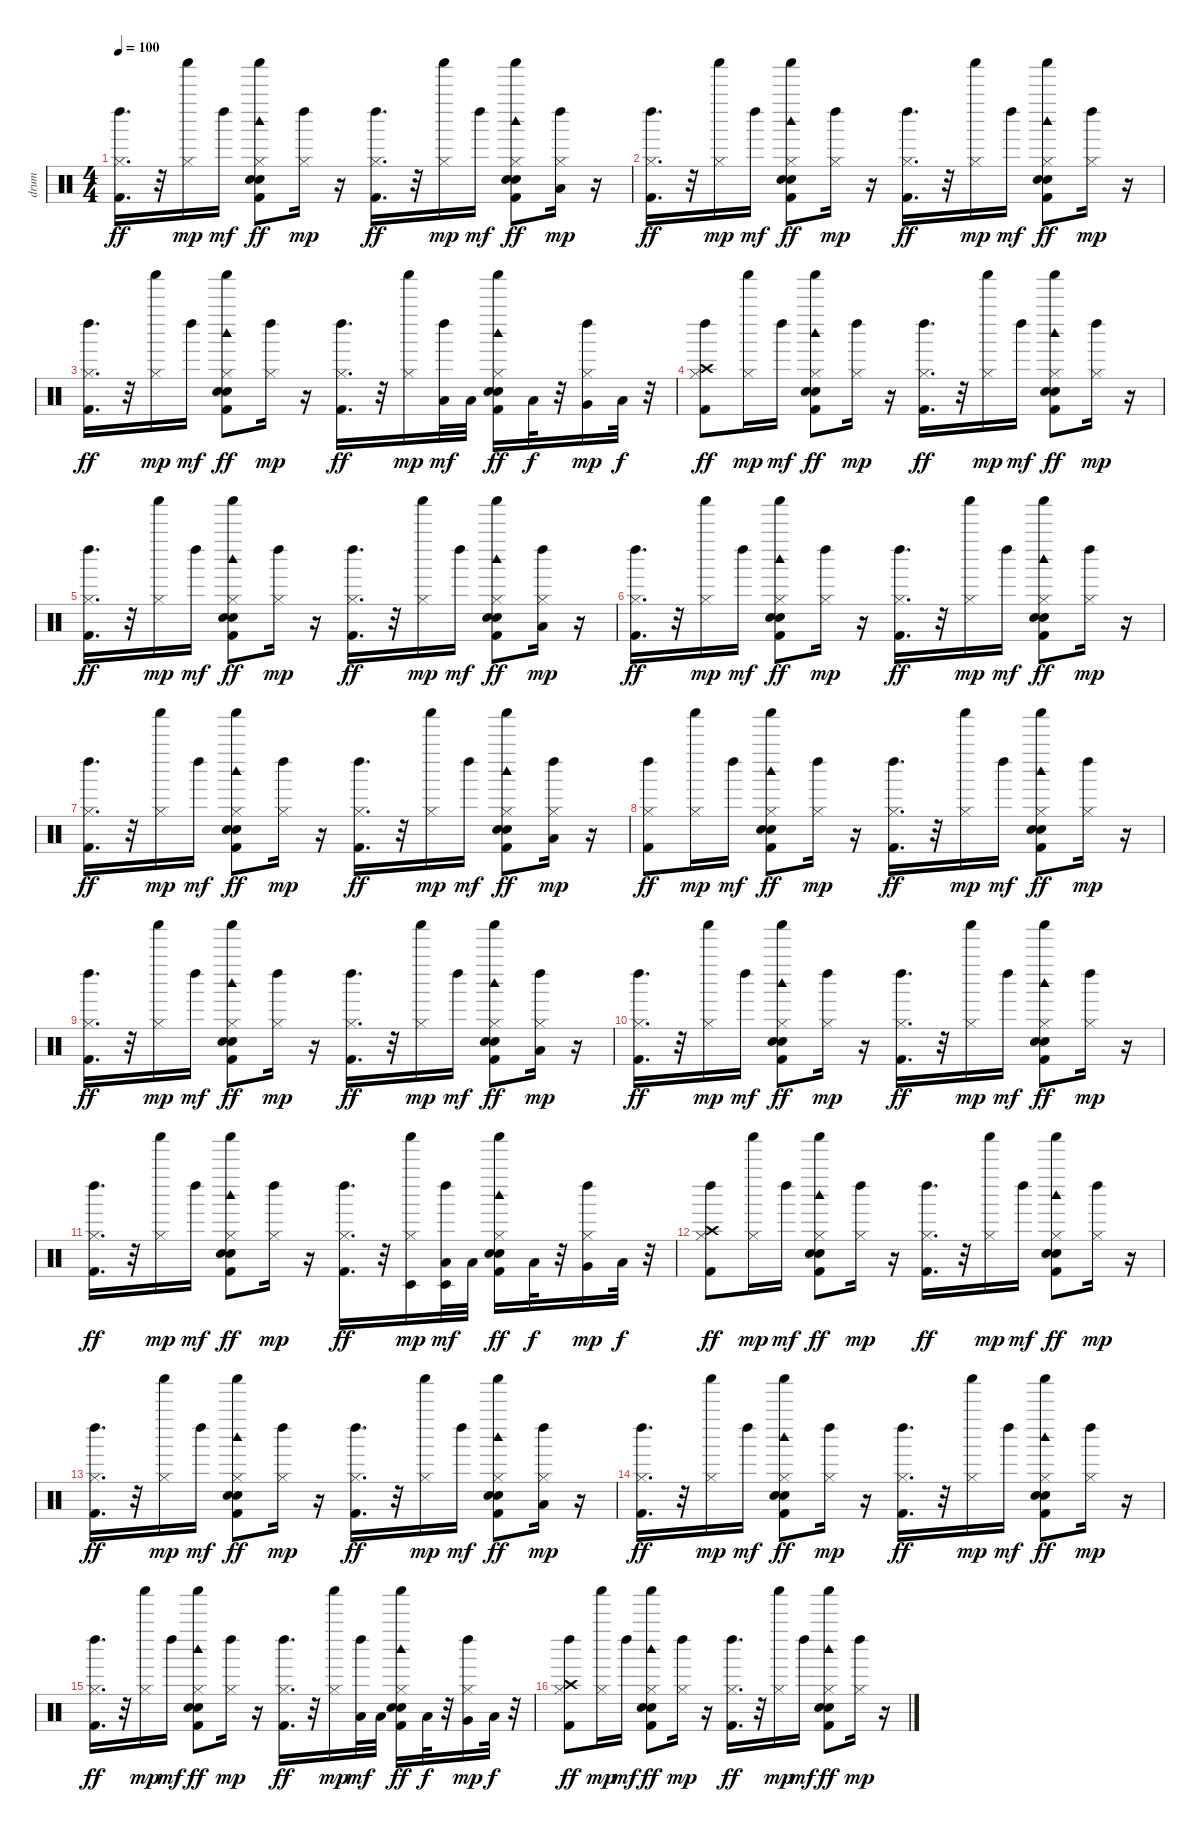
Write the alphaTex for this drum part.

\track ("drum" "drum") {instrument percussion}
\staff {score}
\articulation defaults
\ts (4 4)
\tempo 100
\clef neutral
\ks c
("Left Maraca (hit)" "Hi-Hat (closed)" "Kick (hit) 2").16{d dy ff} r.32 ("Shaker (hit)" "Hi-Hat (closed)").16{dy mp} "Left Maraca (hit)".16{dy mf} ("Shaker (hit)" "Woodblock high (hit)" "Hi-Hat (closed)" "Hand Clap (hit)" "Snare (hit) 2" "Kick (hit) 2").8{dy ff} ("Left Maraca (hit)" "Hi-Hat (closed)").16{dy mp} r.16 ("Left Maraca (hit)" "Hi-Hat (closed)" "Kick (hit) 2").16{d dy ff} r.32 ("Shaker (hit)" "Hi-Hat (closed)").16{dy mp} "Left Maraca (hit)".16{dy mf} ("Shaker (hit)" "Woodblock high (hit)" "Hi-Hat (closed)" "Hand Clap (hit)" "Snare (hit) 2" "Kick (hit) 2").8{dy ff} ("Left Maraca (hit)" "Hi-Hat (closed)" "Low Floor Tom (hit)").16{dy mp} r.16 |
("Left Maraca (hit)" "Hi-Hat (closed)" "Kick (hit) 2").16{d dy ff} r.32 ("Shaker (hit)" "Hi-Hat (closed)").16{dy mp} "Left Maraca (hit)".16{dy mf} ("Shaker (hit)" "Woodblock high (hit)" "Hi-Hat (closed)" "Hand Clap (hit)" "Snare (hit) 2" "Kick (hit) 2").8{dy ff} ("Left Maraca (hit)" "Hi-Hat (closed)").16{dy mp} r.16 ("Left Maraca (hit)" "Hi-Hat (closed)" "Kick (hit) 2").16{d dy ff} r.32 ("Shaker (hit)" "Hi-Hat (closed)").16{dy mp} "Left Maraca (hit)".16{dy mf} ("Shaker (hit)" "Woodblock high (hit)" "Hi-Hat (closed)" "Hand Clap (hit)" "Snare (hit) 2" "Kick (hit) 2").8{dy ff} ("Left Maraca (hit)" "Hi-Hat (closed)").16{dy mp} r.16 |
("Left Maraca (hit)" "Hi-Hat (closed)" "Kick (hit) 2").16{d dy ff} r.32 ("Shaker (hit)" "Hi-Hat (closed)").16{dy mp} "Left Maraca (hit)".16{dy mf} ("Shaker (hit)" "Woodblock high (hit)" "Hi-Hat (closed)" "Hand Clap (hit)" "Snare (hit) 2" "Kick (hit) 2").8{dy ff} ("Left Maraca (hit)" "Hi-Hat (closed)").16{dy mp} r.16 ("Left Maraca (hit)" "Hi-Hat (closed)" "Kick (hit) 2").16{d dy ff} r.32 ("Shaker (hit)" "Hi-Hat (closed)").16{dy mp} ("Left Maraca (hit)" "Low Tom (hit)").32{dy mf} "Low Tom (hit)".32 ("Shaker (hit)" "Woodblock high (hit)" "Hi-Hat (closed)" "Hand Clap (hit)" "Snare (hit) 2" "Kick (hit) 2").16{dy ff} "Low Tom (hit)".32{dy f} r.32 ("Left Maraca (hit)" "Hi-Hat (closed)" "Very Low Tom (hit)").16{dy mp} "Low Floor Tom (hit)".32{dy f} r.32 |
("Crash high (hit)" "Left Maraca (hit)" "Hi-Hat (closed)" "Kick (hit) 2").8{dy ff} ("Shaker (hit)" "Hi-Hat (closed)").16{dy mp} "Left Maraca (hit)".16{dy mf} ("Shaker (hit)" "Woodblock high (hit)" "Hi-Hat (closed)" "Hand Clap (hit)" "Snare (hit) 2" "Kick (hit) 2").8{dy ff} ("Left Maraca (hit)" "Hi-Hat (closed)").16{dy mp} r.16 ("Left Maraca (hit)" "Hi-Hat (closed)" "Kick (hit) 2").16{d dy ff} r.32 ("Shaker (hit)" "Hi-Hat (closed)").16{dy mp} "Left Maraca (hit)".16{dy mf} ("Shaker (hit)" "Woodblock high (hit)" "Hi-Hat (closed)" "Hand Clap (hit)" "Snare (hit) 2" "Kick (hit) 2").8{dy ff} ("Left Maraca (hit)" "Hi-Hat (closed)").16{dy mp} r.16 |
("Left Maraca (hit)" "Hi-Hat (closed)" "Kick (hit) 2").16{d dy ff} r.32 ("Shaker (hit)" "Hi-Hat (closed)").16{dy mp} "Left Maraca (hit)".16{dy mf} ("Shaker (hit)" "Woodblock high (hit)" "Hi-Hat (closed)" "Hand Clap (hit)" "Snare (hit) 2" "Kick (hit) 2").8{dy ff} ("Left Maraca (hit)" "Hi-Hat (closed)").16{dy mp} r.16 ("Left Maraca (hit)" "Hi-Hat (closed)" "Kick (hit) 2").16{d dy ff} r.32 ("Shaker (hit)" "Hi-Hat (closed)").16{dy mp} "Left Maraca (hit)".16{dy mf} ("Shaker (hit)" "Woodblock high (hit)" "Hi-Hat (closed)" "Hand Clap (hit)" "Snare (hit) 2" "Kick (hit) 2").8{dy ff} ("Left Maraca (hit)" "Hi-Hat (closed)" "Low Floor Tom (hit)").16{dy mp} r.16 |
("Left Maraca (hit)" "Hi-Hat (closed)" "Kick (hit) 2").16{d dy ff} r.32 ("Shaker (hit)" "Hi-Hat (closed)").16{dy mp} "Left Maraca (hit)".16{dy mf} ("Shaker (hit)" "Woodblock high (hit)" "Hi-Hat (closed)" "Hand Clap (hit)" "Snare (hit) 2" "Kick (hit) 2").8{dy ff} ("Left Maraca (hit)" "Hi-Hat (closed)").16{dy mp} r.16 ("Left Maraca (hit)" "Hi-Hat (closed)" "Kick (hit) 2").16{d dy ff} r.32 ("Shaker (hit)" "Hi-Hat (closed)").16{dy mp} "Left Maraca (hit)".16{dy mf} ("Shaker (hit)" "Woodblock high (hit)" "Hi-Hat (closed)" "Hand Clap (hit)" "Snare (hit) 2" "Kick (hit) 2").8{dy ff} ("Left Maraca (hit)" "Hi-Hat (closed)").16{dy mp} r.16 |
("Left Maraca (hit)" "Hi-Hat (closed)" "Kick (hit) 2").16{d dy ff} r.32 ("Shaker (hit)" "Hi-Hat (closed)").16{dy mp} "Left Maraca (hit)".16{dy mf} ("Shaker (hit)" "Woodblock high (hit)" "Hi-Hat (closed)" "Hand Clap (hit)" "Snare (hit) 2" "Kick (hit) 2").8{dy ff} ("Left Maraca (hit)" "Hi-Hat (closed)").16{dy mp} r.16 ("Left Maraca (hit)" "Hi-Hat (closed)" "Kick (hit) 2").16{d dy ff} r.32 ("Shaker (hit)" "Hi-Hat (closed)").16{dy mp} "Left Maraca (hit)".16{dy mf} ("Shaker (hit)" "Woodblock high (hit)" "Hi-Hat (closed)" "Hand Clap (hit)" "Snare (hit) 2" "Kick (hit) 2").8{dy ff} ("Left Maraca (hit)" "Hi-Hat (closed)" "Low Floor Tom (hit)").16{dy mp} r.16 |
("Left Maraca (hit)" "Hi-Hat (closed)" "Kick (hit) 2").8{dy ff} ("Shaker (hit)" "Hi-Hat (closed)").16{dy mp} "Left Maraca (hit)".16{dy mf} ("Shaker (hit)" "Woodblock high (hit)" "Hi-Hat (closed)" "Hand Clap (hit)" "Snare (hit) 2" "Kick (hit) 2").8{dy ff} ("Left Maraca (hit)" "Hi-Hat (closed)").16{dy mp} r.16 ("Left Maraca (hit)" "Hi-Hat (closed)" "Kick (hit) 2").16{d dy ff} r.32 ("Shaker (hit)" "Hi-Hat (closed)").16{dy mp} "Left Maraca (hit)".16{dy mf} ("Shaker (hit)" "Woodblock high (hit)" "Hi-Hat (closed)" "Hand Clap (hit)" "Snare (hit) 2" "Kick (hit) 2").8{dy ff} ("Left Maraca (hit)" "Hi-Hat (closed)").16{dy mp} r.16 |
("Left Maraca (hit)" "Hi-Hat (closed)" "Kick (hit) 2").16{d dy ff} r.32 ("Shaker (hit)" "Hi-Hat (closed)").16{dy mp} "Left Maraca (hit)".16{dy mf} ("Shaker (hit)" "Woodblock high (hit)" "Hi-Hat (closed)" "Hand Clap (hit)" "Snare (hit) 2" "Kick (hit) 2").8{dy ff} ("Left Maraca (hit)" "Hi-Hat (closed)").16{dy mp} r.16 ("Left Maraca (hit)" "Hi-Hat (closed)" "Kick (hit) 2").16{d dy ff} r.32 ("Shaker (hit)" "Hi-Hat (closed)").16{dy mp} "Left Maraca (hit)".16{dy mf} ("Shaker (hit)" "Woodblock high (hit)" "Hi-Hat (closed)" "Hand Clap (hit)" "Snare (hit) 2" "Kick (hit) 2").8{dy ff} ("Left Maraca (hit)" "Hi-Hat (closed)" "Low Floor Tom (hit)").16{dy mp} r.16 |
("Left Maraca (hit)" "Hi-Hat (closed)" "Kick (hit) 2").16{d dy ff} r.32 ("Shaker (hit)" "Hi-Hat (closed)").16{dy mp} "Left Maraca (hit)".16{dy mf} ("Shaker (hit)" "Woodblock high (hit)" "Hi-Hat (closed)" "Hand Clap (hit)" "Snare (hit) 2" "Kick (hit) 2").8{dy ff} ("Left Maraca (hit)" "Hi-Hat (closed)").16{dy mp} r.16 ("Left Maraca (hit)" "Hi-Hat (closed)" "Kick (hit) 2").16{d dy ff} r.32 ("Shaker (hit)" "Hi-Hat (closed)").16{dy mp} "Left Maraca (hit)".16{dy mf} ("Shaker (hit)" "Woodblock high (hit)" "Hi-Hat (closed)" "Hand Clap (hit)" "Snare (hit) 2" "Kick (hit) 2").8{dy ff} ("Left Maraca (hit)" "Hi-Hat (closed)").16{dy mp} r.16 |
("Left Maraca (hit)" "Hi-Hat (closed)" "Kick (hit) 2").16{d dy ff} r.32 ("Shaker (hit)" "Hi-Hat (closed)").16{dy mp} "Left Maraca (hit)".16{dy mf} ("Shaker (hit)" "Woodblock high (hit)" "Hi-Hat (closed)" "Hand Clap (hit)" "Snare (hit) 2" "Kick (hit) 2").8{dy ff} ("Left Maraca (hit)" "Hi-Hat (closed)").16{dy mp} r.16 ("Left Maraca (hit)" "Hi-Hat (closed)" "Kick (hit) 2").16{d dy ff} r.32 ("Shaker (hit)" "Hi-Hat (closed)" "Timbale low (hit)").16{dy mp} ("Left Maraca (hit)" "Low Tom (hit)" "Timbale low (hit)").32{dy mf} "Low Tom (hit)".32 ("Shaker (hit)" "Woodblock high (hit)" "Hi-Hat (closed)" "Hand Clap (hit)" "Snare (hit) 2" "Kick (hit) 2").16{dy ff} "Low Tom (hit)".32{dy f} r.32 ("Left Maraca (hit)" "Hi-Hat (closed)" "Very Low Tom (hit)").16{dy mp} "Low Floor Tom (hit)".32{dy f} r.32 |
("Crash high (hit)" "Left Maraca (hit)" "Hi-Hat (closed)" "Kick (hit) 2").8{dy ff} ("Shaker (hit)" "Hi-Hat (closed)").16{dy mp} "Left Maraca (hit)".16{dy mf} ("Shaker (hit)" "Woodblock high (hit)" "Hi-Hat (closed)" "Hand Clap (hit)" "Snare (hit) 2" "Kick (hit) 2").8{dy ff} ("Left Maraca (hit)" "Hi-Hat (closed)").16{dy mp} r.16 ("Left Maraca (hit)" "Hi-Hat (closed)" "Kick (hit) 2").16{d dy ff} r.32 ("Shaker (hit)" "Hi-Hat (closed)").16{dy mp} "Left Maraca (hit)".16{dy mf} ("Shaker (hit)" "Woodblock high (hit)" "Hi-Hat (closed)" "Hand Clap (hit)" "Snare (hit) 2" "Kick (hit) 2").8{dy ff} ("Left Maraca (hit)" "Hi-Hat (closed)").16{dy mp} r.16 |
("Left Maraca (hit)" "Hi-Hat (closed)" "Kick (hit) 2").16{d dy ff} r.32 ("Shaker (hit)" "Hi-Hat (closed)").16{dy mp} "Left Maraca (hit)".16{dy mf} ("Shaker (hit)" "Woodblock high (hit)" "Hi-Hat (closed)" "Hand Clap (hit)" "Snare (hit) 2" "Kick (hit) 2").8{dy ff} ("Left Maraca (hit)" "Hi-Hat (closed)").16{dy mp} r.16 ("Left Maraca (hit)" "Hi-Hat (closed)" "Kick (hit) 2").16{d dy ff} r.32 ("Shaker (hit)" "Hi-Hat (closed)").16{dy mp} "Left Maraca (hit)".16{dy mf} ("Shaker (hit)" "Woodblock high (hit)" "Hi-Hat (closed)" "Hand Clap (hit)" "Snare (hit) 2" "Kick (hit) 2").8{dy ff} ("Left Maraca (hit)" "Hi-Hat (closed)" "Low Floor Tom (hit)").16{dy mp} r.16 |
("Left Maraca (hit)" "Hi-Hat (closed)" "Kick (hit) 2").16{d dy ff} r.32 ("Shaker (hit)" "Hi-Hat (closed)").16{dy mp} "Left Maraca (hit)".16{dy mf} ("Shaker (hit)" "Woodblock high (hit)" "Hi-Hat (closed)" "Hand Clap (hit)" "Snare (hit) 2" "Kick (hit) 2").8{dy ff} ("Left Maraca (hit)" "Hi-Hat (closed)").16{dy mp} r.16 ("Left Maraca (hit)" "Hi-Hat (closed)" "Kick (hit) 2").16{d dy ff} r.32 ("Shaker (hit)" "Hi-Hat (closed)").16{dy mp} "Left Maraca (hit)".16{dy mf} ("Shaker (hit)" "Woodblock high (hit)" "Hi-Hat (closed)" "Hand Clap (hit)" "Snare (hit) 2" "Kick (hit) 2").8{dy ff} ("Left Maraca (hit)" "Hi-Hat (closed)").16{dy mp} r.16 |
("Left Maraca (hit)" "Hi-Hat (closed)" "Kick (hit) 2").16{d dy ff} r.32 ("Shaker (hit)" "Hi-Hat (closed)").16{dy mp} "Left Maraca (hit)".16{dy mf} ("Shaker (hit)" "Woodblock high (hit)" "Hi-Hat (closed)" "Hand Clap (hit)" "Snare (hit) 2" "Kick (hit) 2").8{dy ff} ("Left Maraca (hit)" "Hi-Hat (closed)").16{dy mp} r.16 ("Left Maraca (hit)" "Hi-Hat (closed)" "Kick (hit) 2").16{d dy ff} r.32 ("Shaker (hit)" "Hi-Hat (closed)").16{dy mp} ("Left Maraca (hit)" "Low Tom (hit)").32{dy mf} "Low Tom (hit)".32 ("Shaker (hit)" "Woodblock high (hit)" "Hi-Hat (closed)" "Hand Clap (hit)" "Snare (hit) 2" "Kick (hit) 2").16{dy ff} "Low Tom (hit)".32{dy f} r.32 ("Left Maraca (hit)" "Hi-Hat (closed)" "Very Low Tom (hit)").16{dy mp} "Low Floor Tom (hit)".32{dy f} r.32 |
("Crash high (hit)" "Left Maraca (hit)" "Hi-Hat (closed)" "Kick (hit) 2").8{dy ff} ("Shaker (hit)" "Hi-Hat (closed)").16{dy mp} "Left Maraca (hit)".16{dy mf} ("Shaker (hit)" "Woodblock high (hit)" "Hi-Hat (closed)" "Hand Clap (hit)" "Snare (hit) 2" "Kick (hit) 2").8{dy ff} ("Left Maraca (hit)" "Hi-Hat (closed)").16{dy mp} r.16 ("Left Maraca (hit)" "Hi-Hat (closed)" "Kick (hit) 2").16{d dy ff} r.32 ("Shaker (hit)" "Hi-Hat (closed)").16{dy mp} "Left Maraca (hit)".16{dy mf} ("Shaker (hit)" "Woodblock high (hit)" "Hi-Hat (closed)" "Hand Clap (hit)" "Snare (hit) 2" "Kick (hit) 2").8{dy ff} ("Left Maraca (hit)" "Hi-Hat (closed)").16{dy mp} r.16
